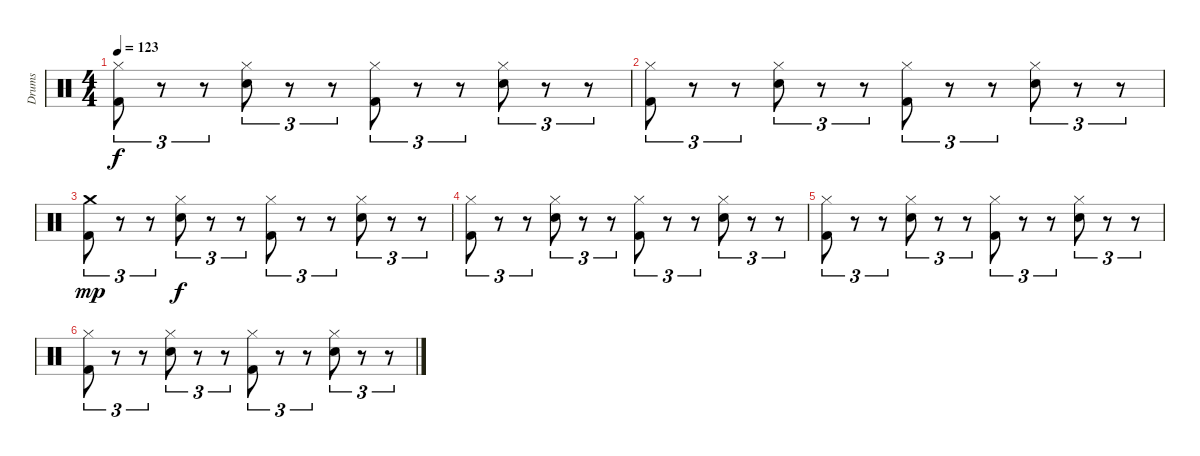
\track ("Drums" "Drums") {instrument percussion}
\staff {score}
\articulation defaults
\ts (4 4)
\tempo 123
\clef neutral
\ks c
("Hi-Hat (closed)" "Kick (hit) 2").8{tu (3 2) dy f} r.8{tu (3 2)} r.8{tu (3 2)} ("Hi-Hat (closed)" "Snare (hit) 2").8{tu (3 2)} r.8{tu (3 2)} r.8{tu (3 2)} ("Hi-Hat (closed)" "Kick (hit) 2").8{tu (3 2)} r.8{tu (3 2)} r.8{tu (3 2)} ("Hi-Hat (closed)" "Snare (hit) 2").8{tu (3 2)} r.8{tu (3 2)} r.8{tu (3 2)} |
("Hi-Hat (closed)" "Kick (hit) 2").8{tu (3 2)} r.8{tu (3 2)} r.8{tu (3 2)} ("Hi-Hat (closed)" "Snare (hit) 2").8{tu (3 2)} r.8{tu (3 2)} r.8{tu (3 2)} ("Hi-Hat (closed)" "Kick (hit) 2").8{tu (3 2)} r.8{tu (3 2)} r.8{tu (3 2)} ("Hi-Hat (closed)" "Snare (hit) 2").8{tu (3 2)} r.8{tu (3 2)} r.8{tu (3 2)} |
("Crash medium (hit)" "Kick (hit) 2").8{tu (3 2) dy mp} r.8{tu (3 2)} r.8{tu (3 2)} ("Hi-Hat (closed)" "Snare (hit) 2").8{tu (3 2) dy f} r.8{tu (3 2)} r.8{tu (3 2)} ("Hi-Hat (closed)" "Kick (hit) 2").8{tu (3 2)} r.8{tu (3 2)} r.8{tu (3 2)} ("Hi-Hat (closed)" "Snare (hit) 2").8{tu (3 2)} r.8{tu (3 2)} r.8{tu (3 2)} |
("Hi-Hat (closed)" "Kick (hit) 2").8{tu (3 2)} r.8{tu (3 2)} r.8{tu (3 2)} ("Hi-Hat (closed)" "Snare (hit) 2").8{tu (3 2)} r.8{tu (3 2)} r.8{tu (3 2)} ("Hi-Hat (closed)" "Kick (hit) 2").8{tu (3 2)} r.8{tu (3 2)} r.8{tu (3 2)} ("Hi-Hat (closed)" "Snare (hit) 2").8{tu (3 2)} r.8{tu (3 2)} r.8{tu (3 2)} |
("Hi-Hat (closed)" "Kick (hit) 2").8{tu (3 2)} r.8{tu (3 2)} r.8{tu (3 2)} ("Hi-Hat (closed)" "Snare (hit) 2").8{tu (3 2)} r.8{tu (3 2)} r.8{tu (3 2)} ("Hi-Hat (closed)" "Kick (hit) 2").8{tu (3 2)} r.8{tu (3 2)} r.8{tu (3 2)} ("Hi-Hat (closed)" "Snare (hit) 2").8{tu (3 2)} r.8{tu (3 2)} r.8{tu (3 2)} |
("Hi-Hat (closed)" "Kick (hit) 2").8{tu (3 2)} r.8{tu (3 2)} r.8{tu (3 2)} ("Hi-Hat (closed)" "Snare (hit) 2").8{tu (3 2)} r.8{tu (3 2)} r.8{tu (3 2)} ("Hi-Hat (closed)" "Kick (hit) 2").8{tu (3 2)} r.8{tu (3 2)} r.8{tu (3 2)} ("Hi-Hat (closed)" "Snare (hit) 2").8{tu (3 2)} r.8{tu (3 2)} r.8{tu (3 2)}
